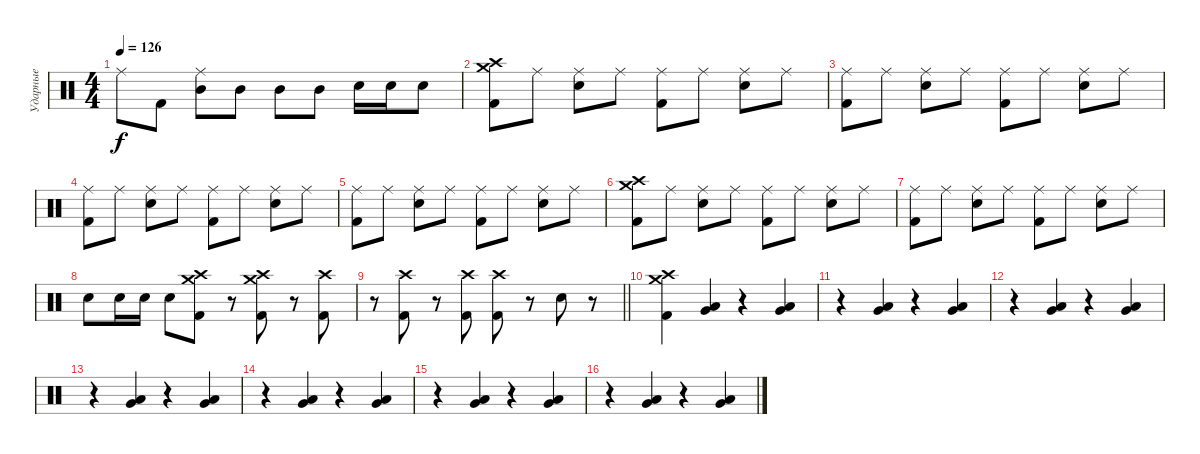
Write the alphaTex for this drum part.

\track ("Ударные" "Ударные") {instrument percussion}
\staff {score}
\articulation defaults
\ts (4 4)
\tempo 126
\clef neutral
\ks c "Ride (middle)".8{dy f} "Kick (hit) 2".8
("Mid Tom (hit)" "Ride (middle)").8 "Mid Tom (hit)".8 "Mid Tom (hit)".8 "Mid Tom (hit)".8 "Electric Snare (hit)".16 "Electric Snare (hit)".16 "Electric Snare (hit)".8 |
("Kick (hit) 2" "Crash high (hit)" "Crash medium (hit)").8 "Ride (middle)".8 ("Snare (hit) 2" "Ride (middle)").8 "Ride (middle)".8 ("Kick (hit) 2" "Ride (middle)").8 "Ride (middle)".8 ("Snare (hit) 2" "Ride (middle)").8 "Ride (middle)".8 |
("Kick (hit) 2" "Ride (middle)").8 "Ride (middle)".8 ("Snare (hit) 2" "Ride (middle)").8 "Ride (middle)".8 ("Kick (hit) 2" "Ride (middle)").8 "Ride (middle)".8 ("Snare (hit) 2" "Ride (middle)").8 "Ride (middle)".8 |
("Kick (hit) 2" "Ride (middle)").8 "Ride (middle)".8 ("Snare (hit) 2" "Ride (middle)").8 "Ride (middle)".8 ("Kick (hit) 2" "Ride (middle)").8 "Ride (middle)".8 ("Snare (hit) 2" "Ride (middle)").8 "Ride (middle)".8 |
("Kick (hit) 2" "Ride (middle)").8 "Ride (middle)".8 ("Snare (hit) 2" "Ride (middle)").8 "Ride (middle)".8 ("Kick (hit) 2" "Ride (middle)").8 "Ride (middle)".8 ("Snare (hit) 2" "Ride (middle)").8 "Ride (middle)".8 |
("Kick (hit) 2" "Crash high (hit)" "Crash medium (hit)").8 "Ride (middle)".8 ("Snare (hit) 2" "Ride (middle)").8 "Ride (middle)".8 ("Kick (hit) 2" "Ride (middle)").8 "Ride (middle)".8 ("Snare (hit) 2" "Ride (middle)").8 "Ride (middle)".8 |
("Kick (hit) 2" "Ride (middle)").8 "Ride (middle)".8 ("Snare (hit) 2" "Ride (middle)").8 "Ride (middle)".8 ("Kick (hit) 2" "Ride (middle)").8 "Ride (middle)".8 ("Snare (hit) 2" "Ride (middle)").8 "Ride (middle)".8 |
"Snare (hit) 2".8 "Snare (hit) 2".16 "Snare (hit) 2".16 "Snare (hit) 2".8 ("Kick (hit) 2" "Crash high (hit)" "Crash medium (hit)").8 r.8 ("Kick (hit) 2" "Crash high (hit)" "Crash medium (hit)").8 r.8 ("Kick (hit) 2" "Crash high (hit)").8 |
\barLineRight lightlight
r.8 ("Kick (hit) 2" "Crash high (hit)").8 r.8 ("Kick (hit) 2" "Crash high (hit)").8 ("Kick (hit) 2" "Crash high (hit)").8 r.8 "Snare (hit) 2".8 r.8 |
("Kick (hit) 2" "Crash high (hit)" "Crash medium (hit)").4 ("Very Low Tom (hit)" "Low Tom (hit)").4 r.4 ("Very Low Tom (hit)" "Low Tom (hit)").4 |
r.4 ("Very Low Tom (hit)" "Low Tom (hit)").4 r.4 ("Very Low Tom (hit)" "Low Tom (hit)").4 |
r.4 ("Very Low Tom (hit)" "Low Tom (hit)").4 r.4 ("Very Low Tom (hit)" "Low Tom (hit)").4 |
r.4 ("Very Low Tom (hit)" "Low Tom (hit)").4 r.4 ("Very Low Tom (hit)" "Low Tom (hit)").4 |
r.4 ("Very Low Tom (hit)" "Low Tom (hit)").4 r.4 ("Very Low Tom (hit)" "Low Tom (hit)").4 |
r.4 ("Very Low Tom (hit)" "Low Tom (hit)").4 r.4 ("Very Low Tom (hit)" "Low Tom (hit)").4 |
r.4 ("Very Low Tom (hit)" "Low Tom (hit)").4 r.4 ("Very Low Tom (hit)" "Low Tom (hit)").4
